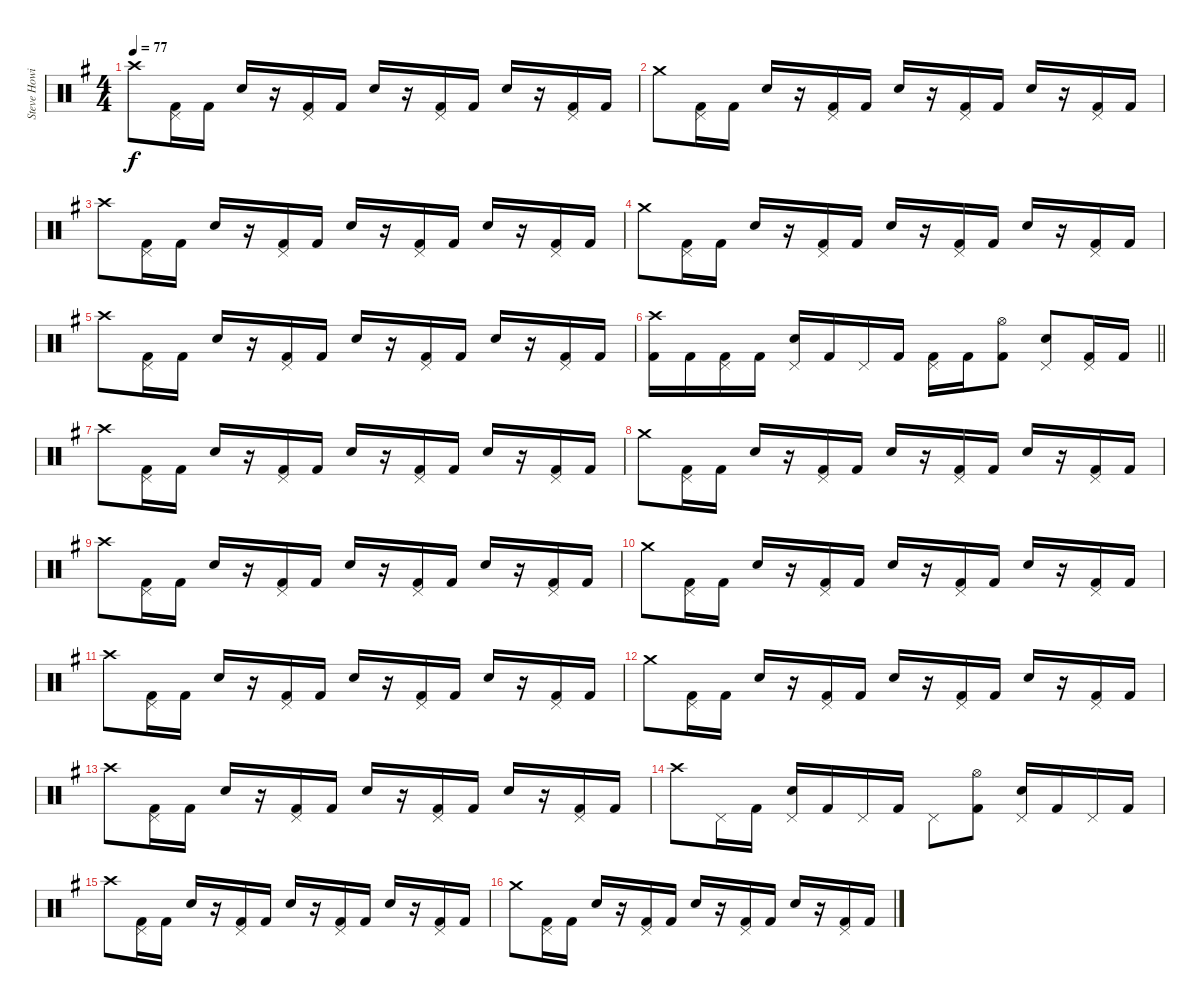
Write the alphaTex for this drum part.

\track ("Steve Howie" "Steve Howi") {instrument percussion}
\staff {score}
\articulation defaults
\ts (4 4)
\tempo 77
\clef neutral
\ks g "Crash high (hit)".8{dy f}
("Pedal Hi-Hat (hit)" "Kick (hit) 2").16 "Kick (hit) 2".16 "Electric Snare (hit)".16 r.16 ("Pedal Hi-Hat (hit)" "Kick (hit) 2").16 "Kick (hit) 2".16 "Electric Snare (hit)".16 r.16 ("Pedal Hi-Hat (hit)" "Kick (hit) 2").16 "Kick (hit) 2".16 "Electric Snare (hit)".16 r.16 ("Pedal Hi-Hat (hit)" "Kick (hit) 2").16 "Kick (hit) 2".16 |
"Crash medium (hit)".8 ("Pedal Hi-Hat (hit)" "Kick (hit) 2").16 "Kick (hit) 2".16 "Electric Snare (hit)".16 r.16 ("Pedal Hi-Hat (hit)" "Kick (hit) 2").16 "Kick (hit) 2".16 "Electric Snare (hit)".16 r.16 ("Pedal Hi-Hat (hit)" "Kick (hit) 2").16 "Kick (hit) 2".16 "Electric Snare (hit)".16 r.16 ("Pedal Hi-Hat (hit)" "Kick (hit) 2").16 "Kick (hit) 2".16 |
"Crash high (hit)".8 ("Pedal Hi-Hat (hit)" "Kick (hit) 2").16 "Kick (hit) 2".16 "Electric Snare (hit)".16 r.16 ("Pedal Hi-Hat (hit)" "Kick (hit) 2").16 "Kick (hit) 2".16 "Electric Snare (hit)".16 r.16 ("Pedal Hi-Hat (hit)" "Kick (hit) 2").16 "Kick (hit) 2".16 "Electric Snare (hit)".16 r.16 ("Pedal Hi-Hat (hit)" "Kick (hit) 2").16 "Kick (hit) 2".16 |
"Crash medium (hit)".8 ("Pedal Hi-Hat (hit)" "Kick (hit) 2").16 "Kick (hit) 2".16 "Electric Snare (hit)".16 r.16 ("Pedal Hi-Hat (hit)" "Kick (hit) 2").16 "Kick (hit) 2".16 "Electric Snare (hit)".16 r.16 ("Pedal Hi-Hat (hit)" "Kick (hit) 2").16 "Kick (hit) 2".16 "Electric Snare (hit)".16 r.16 ("Pedal Hi-Hat (hit)" "Kick (hit) 2").16 "Kick (hit) 2".16 |
"Crash high (hit)".8 ("Pedal Hi-Hat (hit)" "Kick (hit) 2").16 "Kick (hit) 2".16 "Electric Snare (hit)".16 r.16 ("Pedal Hi-Hat (hit)" "Kick (hit) 2").16 "Kick (hit) 2".16 "Electric Snare (hit)".16 r.16 ("Pedal Hi-Hat (hit)" "Kick (hit) 2").16 "Kick (hit) 2".16 "Electric Snare (hit)".16 r.16 ("Pedal Hi-Hat (hit)" "Kick (hit) 2").16 "Kick (hit) 2".16 |
\barLineRight lightlight
("Crash high (hit)" "Kick (hit) 2").16 "Kick (hit) 2".16 ("Pedal Hi-Hat (hit)" "Kick (hit) 2").16 "Kick (hit) 2".16 ("Pedal Hi-Hat (hit)" "Electric Snare (hit)").16 "Kick (hit) 2".16 "Pedal Hi-Hat (hit)".16 "Kick (hit) 2".16 ("Pedal Hi-Hat (hit)" "Kick (hit) 2").16 "Kick (hit) 2".16 ("Hi-Hat (open)" "Kick (hit) 2").8 ("Pedal Hi-Hat (hit)" "Electric Snare (hit)").8 ("Pedal Hi-Hat (hit)" "Kick (hit) 2").16 "Kick (hit) 2".16 |
"Crash high (hit)".8 ("Pedal Hi-Hat (hit)" "Kick (hit) 2").16 "Kick (hit) 2".16 "Electric Snare (hit)".16 r.16 ("Pedal Hi-Hat (hit)" "Kick (hit) 2").16 "Kick (hit) 2".16 "Electric Snare (hit)".16 r.16 ("Pedal Hi-Hat (hit)" "Kick (hit) 2").16 "Kick (hit) 2".16 "Electric Snare (hit)".16 r.16 ("Pedal Hi-Hat (hit)" "Kick (hit) 2").16 "Kick (hit) 2".16 |
"Crash medium (hit)".8 ("Pedal Hi-Hat (hit)" "Kick (hit) 2").16 "Kick (hit) 2".16 "Electric Snare (hit)".16 r.16 ("Pedal Hi-Hat (hit)" "Kick (hit) 2").16 "Kick (hit) 2".16 "Electric Snare (hit)".16 r.16 ("Pedal Hi-Hat (hit)" "Kick (hit) 2").16 "Kick (hit) 2".16 "Electric Snare (hit)".16 r.16 ("Pedal Hi-Hat (hit)" "Kick (hit) 2").16 "Kick (hit) 2".16 |
"Crash high (hit)".8 ("Pedal Hi-Hat (hit)" "Kick (hit) 2").16 "Kick (hit) 2".16 "Electric Snare (hit)".16 r.16 ("Pedal Hi-Hat (hit)" "Kick (hit) 2").16 "Kick (hit) 2".16 "Electric Snare (hit)".16 r.16 ("Pedal Hi-Hat (hit)" "Kick (hit) 2").16 "Kick (hit) 2".16 "Electric Snare (hit)".16 r.16 ("Pedal Hi-Hat (hit)" "Kick (hit) 2").16 "Kick (hit) 2".16 |
"Crash medium (hit)".8 ("Pedal Hi-Hat (hit)" "Kick (hit) 2").16 "Kick (hit) 2".16 "Electric Snare (hit)".16 r.16 ("Pedal Hi-Hat (hit)" "Kick (hit) 2").16 "Kick (hit) 2".16 "Electric Snare (hit)".16 r.16 ("Pedal Hi-Hat (hit)" "Kick (hit) 2").16 "Kick (hit) 2".16 "Electric Snare (hit)".16 r.16 ("Pedal Hi-Hat (hit)" "Kick (hit) 2").16 "Kick (hit) 2".16 |
"Crash high (hit)".8 ("Pedal Hi-Hat (hit)" "Kick (hit) 2").16 "Kick (hit) 2".16 "Electric Snare (hit)".16 r.16 ("Pedal Hi-Hat (hit)" "Kick (hit) 2").16 "Kick (hit) 2".16 "Electric Snare (hit)".16 r.16 ("Pedal Hi-Hat (hit)" "Kick (hit) 2").16 "Kick (hit) 2".16 "Electric Snare (hit)".16 r.16 ("Pedal Hi-Hat (hit)" "Kick (hit) 2").16 "Kick (hit) 2".16 |
"Crash medium (hit)".8 ("Pedal Hi-Hat (hit)" "Kick (hit) 2").16 "Kick (hit) 2".16 "Electric Snare (hit)".16 r.16 ("Pedal Hi-Hat (hit)" "Kick (hit) 2").16 "Kick (hit) 2".16 "Electric Snare (hit)".16 r.16 ("Pedal Hi-Hat (hit)" "Kick (hit) 2").16 "Kick (hit) 2".16 "Electric Snare (hit)".16 r.16 ("Pedal Hi-Hat (hit)" "Kick (hit) 2").16 "Kick (hit) 2".16 |
"Crash high (hit)".8 ("Pedal Hi-Hat (hit)" "Kick (hit) 2").16 "Kick (hit) 2".16 "Electric Snare (hit)".16 r.16 ("Pedal Hi-Hat (hit)" "Kick (hit) 2").16 "Kick (hit) 2".16 "Electric Snare (hit)".16 r.16 ("Pedal Hi-Hat (hit)" "Kick (hit) 2").16 "Kick (hit) 2".16 "Electric Snare (hit)".16 r.16 ("Pedal Hi-Hat (hit)" "Kick (hit) 2").16 "Kick (hit) 2".16 |
"Crash high (hit)".8 "Pedal Hi-Hat (hit)".16 "Kick (hit) 2".16 ("Pedal Hi-Hat (hit)" "Electric Snare (hit)").16 "Kick (hit) 2".16 "Pedal Hi-Hat (hit)".16 "Kick (hit) 2".16 "Pedal Hi-Hat (hit)".8 ("Hi-Hat (open)" "Kick (hit) 2").8 ("Pedal Hi-Hat (hit)" "Electric Snare (hit)").16 "Kick (hit) 2".16 "Pedal Hi-Hat (hit)".16 "Kick (hit) 2".16 |
"Crash high (hit)".8 ("Pedal Hi-Hat (hit)" "Kick (hit) 2").16 "Kick (hit) 2".16 "Electric Snare (hit)".16 r.16 ("Pedal Hi-Hat (hit)" "Kick (hit) 2").16 "Kick (hit) 2".16 "Electric Snare (hit)".16 r.16 ("Pedal Hi-Hat (hit)" "Kick (hit) 2").16 "Kick (hit) 2".16 "Electric Snare (hit)".16 r.16 ("Pedal Hi-Hat (hit)" "Kick (hit) 2").16 "Kick (hit) 2".16 |
"Crash medium (hit)".8 ("Pedal Hi-Hat (hit)" "Kick (hit) 2").16 "Kick (hit) 2".16 "Electric Snare (hit)".16 r.16 ("Pedal Hi-Hat (hit)" "Kick (hit) 2").16 "Kick (hit) 2".16 "Electric Snare (hit)".16 r.16 ("Pedal Hi-Hat (hit)" "Kick (hit) 2").16 "Kick (hit) 2".16 "Electric Snare (hit)".16 r.16 ("Pedal Hi-Hat (hit)" "Kick (hit) 2").16 "Kick (hit) 2".16
